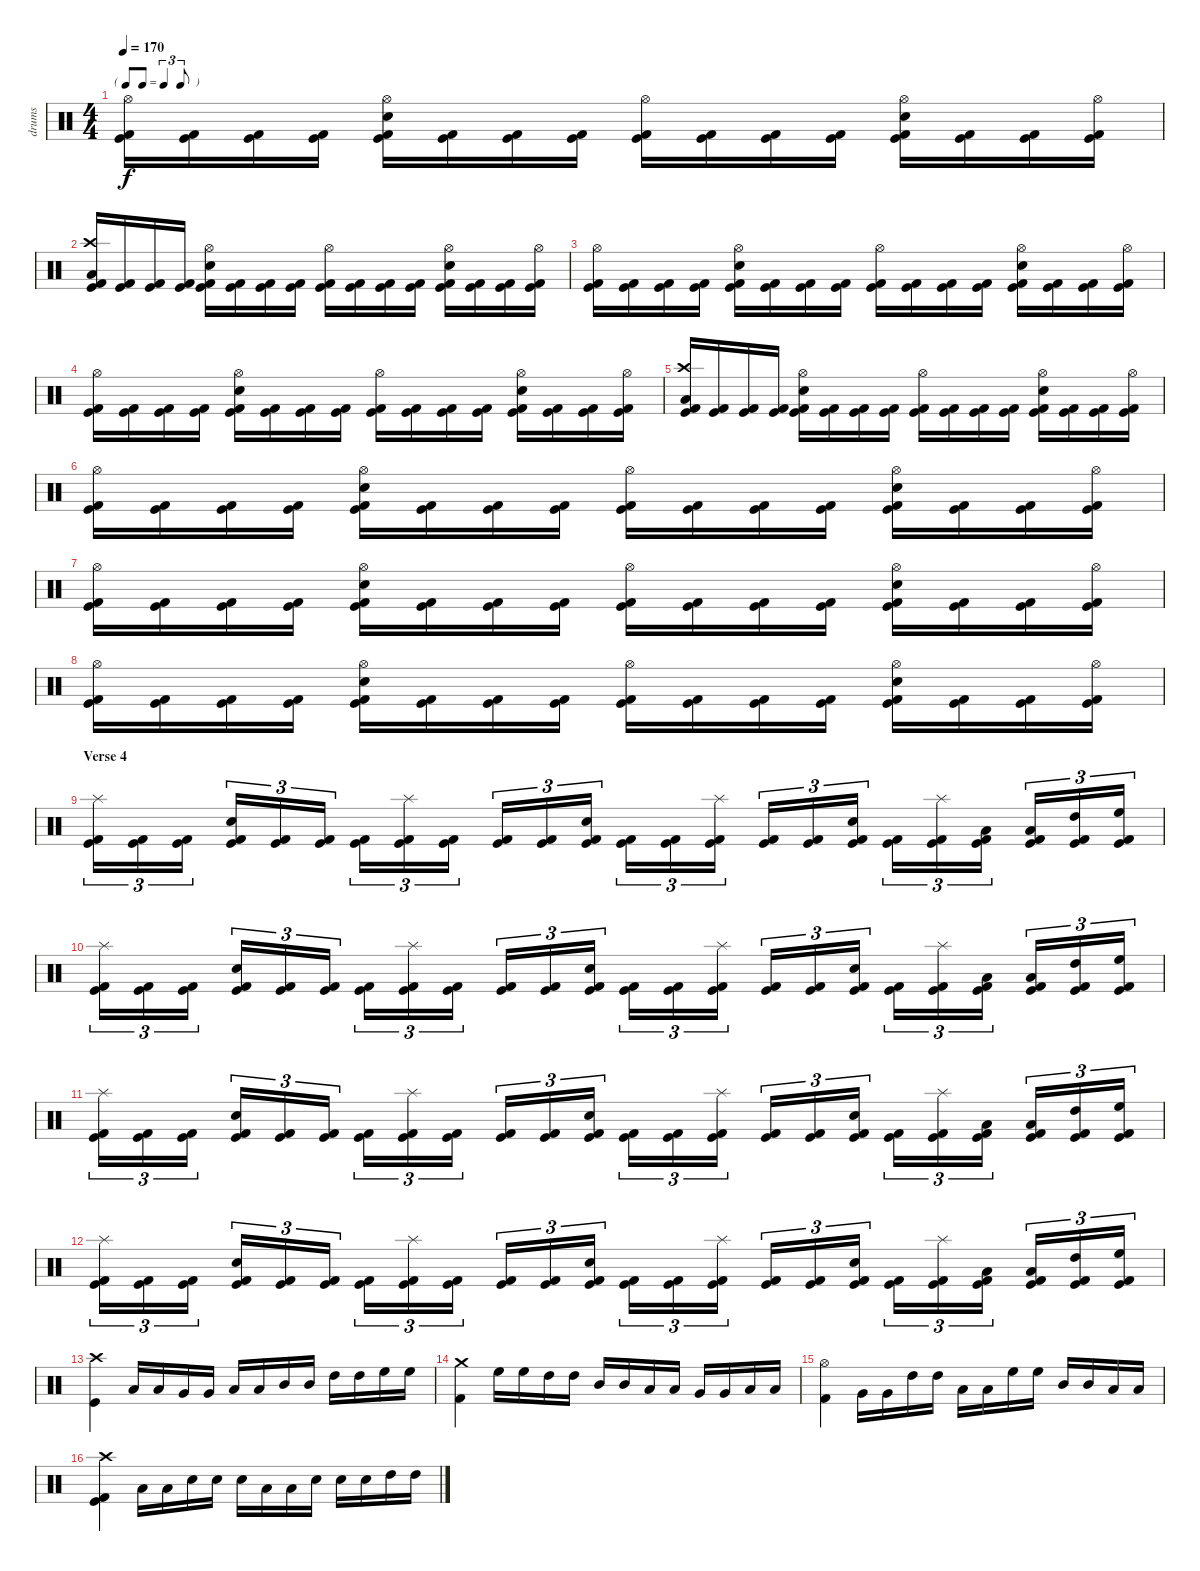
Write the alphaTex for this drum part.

\track ("drums" "drums") {instrument percussion}
\staff {score}
\articulation defaults
\ts (4 4)
\tf triplet8th
\tempo 170
\clef neutral
\ks c
("Hi-Hat (open)" "Kick (hit)" "Kick (hit) 2").16{dy f} ("Kick (hit)" "Kick (hit) 2").16 ("Kick (hit)" "Kick (hit) 2").16 ("Kick (hit)" "Kick (hit) 2").16 ("Hi-Hat (open)" "Snare (hit) 2" "Kick (hit)" "Kick (hit) 2").16 ("Kick (hit)" "Kick (hit) 2").16 ("Kick (hit)" "Kick (hit) 2").16 ("Kick (hit)" "Kick (hit) 2").16 ("Hi-Hat (open)" "Kick (hit)" "Kick (hit) 2").16 ("Kick (hit)" "Kick (hit) 2").16 ("Kick (hit)" "Kick (hit) 2").16 ("Kick (hit)" "Kick (hit) 2").16 ("Hi-Hat (open)" "Snare (hit) 2" "Kick (hit)" "Kick (hit) 2").16 ("Kick (hit)" "Kick (hit) 2").16 ("Kick (hit)" "Kick (hit) 2").16 ("Hi-Hat (open)" "Kick (hit)" "Kick (hit) 2").16 |
("Crash high (hit)" "Low Floor Tom (hit)" "Kick (hit)" "Kick (hit) 2").16 ("Kick (hit)" "Kick (hit) 2").16 ("Kick (hit)" "Kick (hit) 2").16 ("Kick (hit)" "Kick (hit) 2").16 ("Hi-Hat (open)" "Snare (hit) 2" "Kick (hit)" "Kick (hit) 2").16 ("Kick (hit)" "Kick (hit) 2").16 ("Kick (hit)" "Kick (hit) 2").16 ("Kick (hit)" "Kick (hit) 2").16 ("Hi-Hat (open)" "Kick (hit)" "Kick (hit) 2").16 ("Kick (hit)" "Kick (hit) 2").16 ("Kick (hit)" "Kick (hit) 2").16 ("Kick (hit)" "Kick (hit) 2").16 ("Hi-Hat (open)" "Snare (hit) 2" "Kick (hit)" "Kick (hit) 2").16 ("Kick (hit)" "Kick (hit) 2").16 ("Kick (hit)" "Kick (hit) 2").16 ("Hi-Hat (open)" "Kick (hit)" "Kick (hit) 2").16 |
("Hi-Hat (open)" "Kick (hit)" "Kick (hit) 2").16 ("Kick (hit)" "Kick (hit) 2").16 ("Kick (hit)" "Kick (hit) 2").16 ("Kick (hit)" "Kick (hit) 2").16 ("Hi-Hat (open)" "Snare (hit) 2" "Kick (hit)" "Kick (hit) 2").16 ("Kick (hit)" "Kick (hit) 2").16 ("Kick (hit)" "Kick (hit) 2").16 ("Kick (hit)" "Kick (hit) 2").16 ("Hi-Hat (open)" "Kick (hit)" "Kick (hit) 2").16 ("Kick (hit)" "Kick (hit) 2").16 ("Kick (hit)" "Kick (hit) 2").16 ("Kick (hit)" "Kick (hit) 2").16 ("Hi-Hat (open)" "Snare (hit) 2" "Kick (hit)" "Kick (hit) 2").16 ("Kick (hit)" "Kick (hit) 2").16 ("Kick (hit)" "Kick (hit) 2").16 ("Hi-Hat (open)" "Kick (hit)" "Kick (hit) 2").16 |
("Hi-Hat (open)" "Kick (hit)" "Kick (hit) 2").16 ("Kick (hit)" "Kick (hit) 2").16 ("Kick (hit)" "Kick (hit) 2").16 ("Kick (hit)" "Kick (hit) 2").16 ("Hi-Hat (open)" "Snare (hit) 2" "Kick (hit)" "Kick (hit) 2").16 ("Kick (hit)" "Kick (hit) 2").16 ("Kick (hit)" "Kick (hit) 2").16 ("Kick (hit)" "Kick (hit) 2").16 ("Hi-Hat (open)" "Kick (hit)" "Kick (hit) 2").16 ("Kick (hit)" "Kick (hit) 2").16 ("Kick (hit)" "Kick (hit) 2").16 ("Kick (hit)" "Kick (hit) 2").16 ("Hi-Hat (open)" "Snare (hit) 2" "Kick (hit)" "Kick (hit) 2").16 ("Kick (hit)" "Kick (hit) 2").16 ("Kick (hit)" "Kick (hit) 2").16 ("Hi-Hat (open)" "Kick (hit)" "Kick (hit) 2").16 |
("Crash high (hit)" "Low Floor Tom (hit)" "Kick (hit)" "Kick (hit) 2").16 ("Kick (hit)" "Kick (hit) 2").16 ("Kick (hit)" "Kick (hit) 2").16 ("Kick (hit)" "Kick (hit) 2").16 ("Hi-Hat (open)" "Snare (hit) 2" "Kick (hit)" "Kick (hit) 2").16 ("Kick (hit)" "Kick (hit) 2").16 ("Kick (hit)" "Kick (hit) 2").16 ("Kick (hit)" "Kick (hit) 2").16 ("Hi-Hat (open)" "Kick (hit)" "Kick (hit) 2").16 ("Kick (hit)" "Kick (hit) 2").16 ("Kick (hit)" "Kick (hit) 2").16 ("Kick (hit)" "Kick (hit) 2").16 ("Hi-Hat (open)" "Snare (hit) 2" "Kick (hit)" "Kick (hit) 2").16 ("Kick (hit)" "Kick (hit) 2").16 ("Kick (hit)" "Kick (hit) 2").16 ("Hi-Hat (open)" "Kick (hit)" "Kick (hit) 2").16 |
("Hi-Hat (open)" "Kick (hit)" "Kick (hit) 2").16 ("Kick (hit)" "Kick (hit) 2").16 ("Kick (hit)" "Kick (hit) 2").16 ("Kick (hit)" "Kick (hit) 2").16 ("Hi-Hat (open)" "Snare (hit) 2" "Kick (hit)" "Kick (hit) 2").16 ("Kick (hit)" "Kick (hit) 2").16 ("Kick (hit)" "Kick (hit) 2").16 ("Kick (hit)" "Kick (hit) 2").16 ("Hi-Hat (open)" "Kick (hit)" "Kick (hit) 2").16 ("Kick (hit)" "Kick (hit) 2").16 ("Kick (hit)" "Kick (hit) 2").16 ("Kick (hit)" "Kick (hit) 2").16 ("Hi-Hat (open)" "Snare (hit) 2" "Kick (hit)" "Kick (hit) 2").16 ("Kick (hit)" "Kick (hit) 2").16 ("Kick (hit)" "Kick (hit) 2").16 ("Hi-Hat (open)" "Kick (hit)" "Kick (hit) 2").16 |
("Hi-Hat (open)" "Kick (hit)" "Kick (hit) 2").16 ("Kick (hit)" "Kick (hit) 2").16 ("Kick (hit)" "Kick (hit) 2").16 ("Kick (hit)" "Kick (hit) 2").16 ("Hi-Hat (open)" "Snare (hit) 2" "Kick (hit)" "Kick (hit) 2").16 ("Kick (hit)" "Kick (hit) 2").16 ("Kick (hit)" "Kick (hit) 2").16 ("Kick (hit)" "Kick (hit) 2").16 ("Hi-Hat (open)" "Kick (hit)" "Kick (hit) 2").16 ("Kick (hit)" "Kick (hit) 2").16 ("Kick (hit)" "Kick (hit) 2").16 ("Kick (hit)" "Kick (hit) 2").16 ("Hi-Hat (open)" "Snare (hit) 2" "Kick (hit)" "Kick (hit) 2").16 ("Kick (hit)" "Kick (hit) 2").16 ("Kick (hit)" "Kick (hit) 2").16 ("Hi-Hat (open)" "Kick (hit)" "Kick (hit) 2").16 |
("Hi-Hat (open)" "Kick (hit)" "Kick (hit) 2").16 ("Kick (hit)" "Kick (hit) 2").16 ("Kick (hit)" "Kick (hit) 2").16 ("Kick (hit)" "Kick (hit) 2").16 ("Hi-Hat (open)" "Snare (hit) 2" "Kick (hit)" "Kick (hit) 2").16 ("Kick (hit)" "Kick (hit) 2").16 ("Kick (hit)" "Kick (hit) 2").16 ("Kick (hit)" "Kick (hit) 2").16 ("Hi-Hat (open)" "Kick (hit)" "Kick (hit) 2").16 ("Kick (hit)" "Kick (hit) 2").16 ("Kick (hit)" "Kick (hit) 2").16 ("Kick (hit)" "Kick (hit) 2").16 ("Hi-Hat (open)" "Snare (hit) 2" "Kick (hit)" "Kick (hit) 2").16 ("Kick (hit)" "Kick (hit) 2").16 ("Kick (hit)" "Kick (hit) 2").16 ("Hi-Hat (open)" "Kick (hit)" "Kick (hit) 2").16 |
\section ("" "Verse 4")
("Splash (hit)" "Kick (hit) 2" "Kick (hit)").16{tu (3 2)} ("Kick (hit) 2" "Kick (hit)").16{tu (3 2)} ("Kick (hit) 2" "Kick (hit)").16{tu (3 2)} ("Electric Snare (hit)" "Kick (hit) 2" "Kick (hit)").16{tu (3 2)} ("Kick (hit) 2" "Kick (hit)").16{tu (3 2)} ("Kick (hit) 2" "Kick (hit)").16{tu (3 2)} ("Kick (hit) 2" "Kick (hit)").16{tu (3 2)} ("Splash (hit)" "Kick (hit) 2" "Kick (hit)").16{tu (3 2)} ("Kick (hit) 2" "Kick (hit)").16{tu (3 2)} ("Kick (hit) 2" "Kick (hit)").16{tu (3 2)} ("Kick (hit) 2" "Kick (hit)").16{tu (3 2)} ("Electric Snare (hit)" "Kick (hit) 2" "Kick (hit)").16{tu (3 2)} ("Kick (hit) 2" "Kick (hit)").16{tu (3 2)} ("Kick (hit) 2" "Kick (hit)").16{tu (3 2)} ("Splash (hit)" "Kick (hit) 2" "Kick (hit)").16{tu (3 2)} ("Kick (hit) 2" "Kick (hit)").16{tu (3 2)} ("Kick (hit) 2" "Kick (hit)").16{tu (3 2)} ("Electric Snare (hit)" "Kick (hit) 2" "Kick (hit)").16{tu (3 2)} ("Kick (hit) 2" "Kick (hit)").16{tu (3 2)} ("Splash (hit)" "Kick (hit) 2" "Kick (hit)").16{tu (3 2)} ("Low Floor Tom (hit)" "Kick (hit) 2" "Kick (hit)").16{tu (3 2)} ("Low Tom (hit)" "Kick (hit) 2" "Kick (hit)").16{tu (3 2)} ("High Tom (hit)" "Kick (hit) 2" "Kick (hit)").16{tu (3 2)} ("High Floor Tom (hit)" "Kick (hit) 2" "Kick (hit)").16{tu (3 2)} |
("Splash (hit)" "Kick (hit) 2" "Kick (hit)").16{tu (3 2)} ("Kick (hit) 2" "Kick (hit)").16{tu (3 2)} ("Kick (hit) 2" "Kick (hit)").16{tu (3 2)} ("Electric Snare (hit)" "Kick (hit) 2" "Kick (hit)").16{tu (3 2)} ("Kick (hit) 2" "Kick (hit)").16{tu (3 2)} ("Kick (hit) 2" "Kick (hit)").16{tu (3 2)} ("Kick (hit) 2" "Kick (hit)").16{tu (3 2)} ("Splash (hit)" "Kick (hit) 2" "Kick (hit)").16{tu (3 2)} ("Kick (hit) 2" "Kick (hit)").16{tu (3 2)} ("Kick (hit) 2" "Kick (hit)").16{tu (3 2)} ("Kick (hit) 2" "Kick (hit)").16{tu (3 2)} ("Electric Snare (hit)" "Kick (hit) 2" "Kick (hit)").16{tu (3 2)} ("Kick (hit) 2" "Kick (hit)").16{tu (3 2)} ("Kick (hit) 2" "Kick (hit)").16{tu (3 2)} ("Splash (hit)" "Kick (hit) 2" "Kick (hit)").16{tu (3 2)} ("Kick (hit) 2" "Kick (hit)").16{tu (3 2)} ("Kick (hit) 2" "Kick (hit)").16{tu (3 2)} ("Electric Snare (hit)" "Kick (hit) 2" "Kick (hit)").16{tu (3 2)} ("Kick (hit) 2" "Kick (hit)").16{tu (3 2)} ("Splash (hit)" "Kick (hit) 2" "Kick (hit)").16{tu (3 2)} ("Low Floor Tom (hit)" "Kick (hit) 2" "Kick (hit)").16{tu (3 2)} ("Low Tom (hit)" "Kick (hit) 2" "Kick (hit)").16{tu (3 2)} ("High Tom (hit)" "Kick (hit) 2" "Kick (hit)").16{tu (3 2)} ("High Floor Tom (hit)" "Kick (hit) 2" "Kick (hit)").16{tu (3 2)} |
("Splash (hit)" "Kick (hit) 2" "Kick (hit)").16{tu (3 2)} ("Kick (hit) 2" "Kick (hit)").16{tu (3 2)} ("Kick (hit) 2" "Kick (hit)").16{tu (3 2)} ("Electric Snare (hit)" "Kick (hit) 2" "Kick (hit)").16{tu (3 2)} ("Kick (hit) 2" "Kick (hit)").16{tu (3 2)} ("Kick (hit) 2" "Kick (hit)").16{tu (3 2)} ("Kick (hit) 2" "Kick (hit)").16{tu (3 2)} ("Splash (hit)" "Kick (hit) 2" "Kick (hit)").16{tu (3 2)} ("Kick (hit) 2" "Kick (hit)").16{tu (3 2)} ("Kick (hit) 2" "Kick (hit)").16{tu (3 2)} ("Kick (hit) 2" "Kick (hit)").16{tu (3 2)} ("Electric Snare (hit)" "Kick (hit) 2" "Kick (hit)").16{tu (3 2)} ("Kick (hit) 2" "Kick (hit)").16{tu (3 2)} ("Kick (hit) 2" "Kick (hit)").16{tu (3 2)} ("Splash (hit)" "Kick (hit) 2" "Kick (hit)").16{tu (3 2)} ("Kick (hit) 2" "Kick (hit)").16{tu (3 2)} ("Kick (hit) 2" "Kick (hit)").16{tu (3 2)} ("Electric Snare (hit)" "Kick (hit) 2" "Kick (hit)").16{tu (3 2)} ("Kick (hit) 2" "Kick (hit)").16{tu (3 2)} ("Splash (hit)" "Kick (hit) 2" "Kick (hit)").16{tu (3 2)} ("Low Floor Tom (hit)" "Kick (hit) 2" "Kick (hit)").16{tu (3 2)} ("Low Tom (hit)" "Kick (hit) 2" "Kick (hit)").16{tu (3 2)} ("High Tom (hit)" "Kick (hit) 2" "Kick (hit)").16{tu (3 2)} ("High Floor Tom (hit)" "Kick (hit) 2" "Kick (hit)").16{tu (3 2)} |
("Splash (hit)" "Kick (hit) 2" "Kick (hit)").16{tu (3 2)} ("Kick (hit) 2" "Kick (hit)").16{tu (3 2)} ("Kick (hit) 2" "Kick (hit)").16{tu (3 2)} ("Electric Snare (hit)" "Kick (hit) 2" "Kick (hit)").16{tu (3 2)} ("Kick (hit) 2" "Kick (hit)").16{tu (3 2)} ("Kick (hit) 2" "Kick (hit)").16{tu (3 2)} ("Kick (hit) 2" "Kick (hit)").16{tu (3 2)} ("Splash (hit)" "Kick (hit) 2" "Kick (hit)").16{tu (3 2)} ("Kick (hit) 2" "Kick (hit)").16{tu (3 2)} ("Kick (hit) 2" "Kick (hit)").16{tu (3 2)} ("Kick (hit) 2" "Kick (hit)").16{tu (3 2)} ("Electric Snare (hit)" "Kick (hit) 2" "Kick (hit)").16{tu (3 2)} ("Kick (hit) 2" "Kick (hit)").16{tu (3 2)} ("Kick (hit) 2" "Kick (hit)").16{tu (3 2)} ("Splash (hit)" "Kick (hit) 2" "Kick (hit)").16{tu (3 2)} ("Kick (hit) 2" "Kick (hit)").16{tu (3 2)} ("Kick (hit) 2" "Kick (hit)").16{tu (3 2)} ("Electric Snare (hit)" "Kick (hit) 2" "Kick (hit)").16{tu (3 2)} ("Kick (hit) 2" "Kick (hit)").16{tu (3 2)} ("Splash (hit)" "Kick (hit) 2" "Kick (hit)").16{tu (3 2)} ("Low Floor Tom (hit)" "Kick (hit) 2" "Kick (hit)").16{tu (3 2)} ("Low Tom (hit)" "Kick (hit) 2" "Kick (hit)").16{tu (3 2)} ("High Tom (hit)" "Kick (hit) 2" "Kick (hit)").16{tu (3 2)} ("High Floor Tom (hit)" "Kick (hit) 2" "Kick (hit)").16{tu (3 2)} |
("Crash high (hit)" "Kick (hit)").4 "Low Floor Tom (hit)".16 "Low Floor Tom (hit)".16 "Very Low Tom (hit)".16 "Very Low Tom (hit)".16 "Low Tom (hit)".16 "Low Tom (hit)".16 "Mid Tom (hit)".16 "Mid Tom (hit)".16 "High Tom (hit)".16 "High Tom (hit)".16 "High Floor Tom (hit)".16 "High Floor Tom (hit)".16 |
("Crash medium (hit)" "Kick (hit) 2").4 "High Floor Tom (hit)".16 "High Floor Tom (hit)".16 "High Tom (hit)".16 "High Tom (hit)".16 "Mid Tom (hit)".16 "Mid Tom (hit)".16 "Low Tom (hit)".16 "Low Tom (hit)".16 "Very Low Tom (hit)".16 "Very Low Tom (hit)".16 "Low Floor Tom (hit)".16 "Low Floor Tom (hit)".16 |
("Hi-Hat (open)" "Kick (hit) 2").4 "Very Low Tom (hit)".16 "Very Low Tom (hit)".16 "High Tom (hit)".16 "High Tom (hit)".16 "Low Floor Tom (hit)".16 "Low Floor Tom (hit)".16 "High Floor Tom (hit)".16 "High Floor Tom (hit)".16 "Mid Tom (hit)".16 "Mid Tom (hit)".16 "Low Tom (hit)".16 "Low Tom (hit)".16 |
("Crash high (hit)" "Kick (hit)" "Kick (hit) 2").4 "Low Floor Tom (hit)".16 "Low Floor Tom (hit)".16 "Electric Snare (hit)".16 "Electric Snare (hit)".16 "Electric Snare (hit)".16 "Low Tom (hit)".16 "Low Tom (hit)".16 "Electric Snare (hit)".16 "Electric Snare (hit)".16 "Electric Snare (hit)".16 "High Tom (hit)".16 "High Tom (hit)".16
